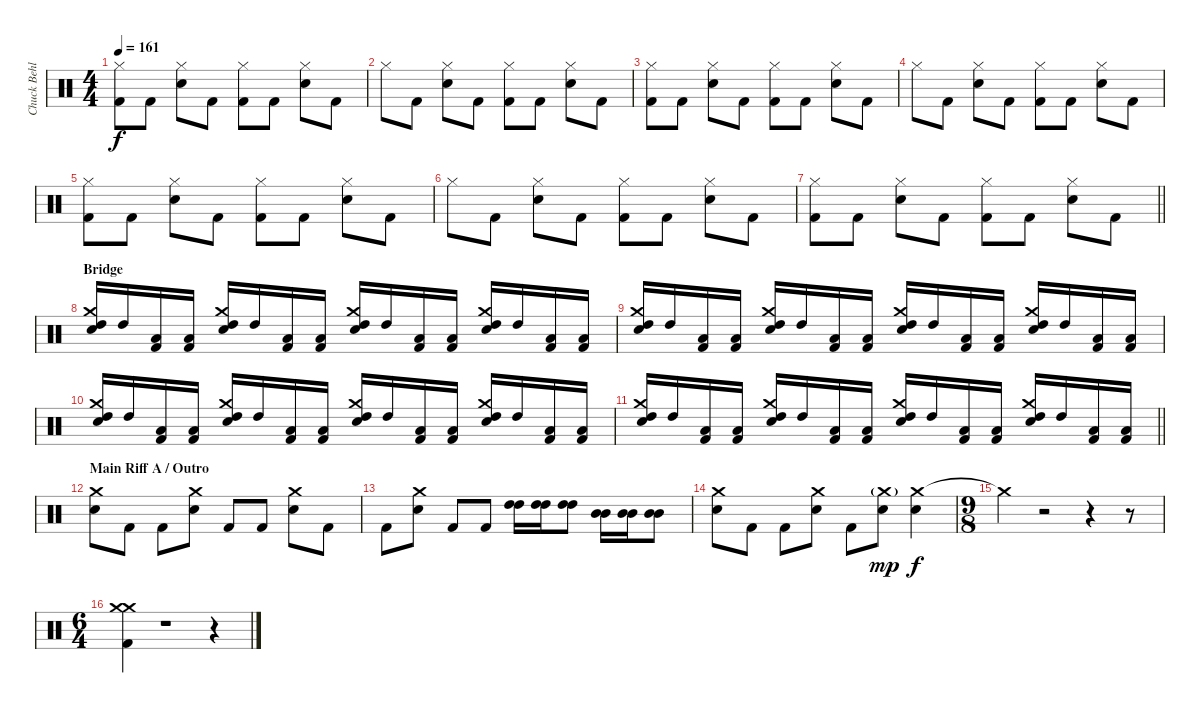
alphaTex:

\track ("Chuck Behler" "Chuck Behl") {instrument percussion}
\staff {score}
\articulation defaults
\ts (4 4)
\tempo 161
\clef neutral
\ks c
("Hi-Hat (closed)" "Kick (hit) 2").8{dy f} "Kick (hit) 2".8 ("Hi-Hat (closed)" "Snare (hit) 2").8 "Kick (hit) 2".8 ("Hi-Hat (closed)" "Kick (hit) 2").8 "Kick (hit) 2".8 ("Hi-Hat (closed)" "Snare (hit) 2").8 "Kick (hit) 2".8 |
"Hi-Hat (closed)".8 "Kick (hit) 2".8 ("Hi-Hat (closed)" "Snare (hit) 2").8 "Kick (hit) 2".8 ("Hi-Hat (closed)" "Kick (hit) 2").8 "Kick (hit) 2".8 ("Hi-Hat (closed)" "Snare (hit) 2").8 "Kick (hit) 2".8 |
("Hi-Hat (closed)" "Kick (hit) 2").8 "Kick (hit) 2".8 ("Hi-Hat (closed)" "Snare (hit) 2").8 "Kick (hit) 2".8 ("Hi-Hat (closed)" "Kick (hit) 2").8 "Kick (hit) 2".8 ("Hi-Hat (closed)" "Snare (hit) 2").8 "Kick (hit) 2".8 |
"Hi-Hat (closed)".8 "Kick (hit) 2".8 ("Hi-Hat (closed)" "Snare (hit) 2").8 "Kick (hit) 2".8 ("Hi-Hat (closed)" "Kick (hit) 2").8 "Kick (hit) 2".8 ("Hi-Hat (closed)" "Snare (hit) 2").8 "Kick (hit) 2".8 |
("Hi-Hat (closed)" "Kick (hit) 2").8 "Kick (hit) 2".8 ("Hi-Hat (closed)" "Snare (hit) 2").8 "Kick (hit) 2".8 ("Hi-Hat (closed)" "Kick (hit) 2").8 "Kick (hit) 2".8 ("Hi-Hat (closed)" "Snare (hit) 2").8 "Kick (hit) 2".8 |
"Hi-Hat (closed)".8 "Kick (hit) 2".8 ("Hi-Hat (closed)" "Snare (hit) 2").8 "Kick (hit) 2".8 ("Hi-Hat (closed)" "Kick (hit) 2").8 "Kick (hit) 2".8 ("Hi-Hat (closed)" "Snare (hit) 2").8 "Kick (hit) 2".8 |
\barLineRight lightlight
("Hi-Hat (closed)" "Kick (hit) 2").8 "Kick (hit) 2".8 ("Hi-Hat (closed)" "Snare (hit) 2").8 "Kick (hit) 2".8 ("Hi-Hat (closed)" "Kick (hit) 2").8 "Kick (hit) 2".8 ("Hi-Hat (closed)" "Snare (hit) 2").8 "Kick (hit) 2".8 |
\section ("" "Bridge")
("Crash medium (hit)" "High Tom (hit)" "Snare (hit) 2").16 "High Tom (hit)".16 ("Low Tom (hit)" "Kick (hit) 2").16 ("Low Tom (hit)" "Kick (hit) 2").16 ("Crash medium (hit)" "High Tom (hit)" "Snare (hit) 2").16 "High Tom (hit)".16 ("Low Tom (hit)" "Kick (hit) 2").16 ("Low Tom (hit)" "Kick (hit) 2").16 ("Crash medium (hit)" "High Tom (hit)" "Snare (hit) 2").16 "High Tom (hit)".16 ("Low Tom (hit)" "Kick (hit) 2").16 ("Low Tom (hit)" "Kick (hit) 2").16 ("Crash medium (hit)" "High Tom (hit)" "Snare (hit) 2").16 "High Tom (hit)".16 ("Low Tom (hit)" "Kick (hit) 2").16 ("Low Tom (hit)" "Kick (hit) 2").16 |
("Crash medium (hit)" "High Tom (hit)" "Snare (hit) 2").16 "High Tom (hit)".16 ("Low Tom (hit)" "Kick (hit) 2").16 ("Low Tom (hit)" "Kick (hit) 2").16 ("Crash medium (hit)" "High Tom (hit)" "Snare (hit) 2").16 "High Tom (hit)".16 ("Low Tom (hit)" "Kick (hit) 2").16 ("Low Tom (hit)" "Kick (hit) 2").16 ("Crash medium (hit)" "High Tom (hit)" "Snare (hit) 2").16 "High Tom (hit)".16 ("Low Tom (hit)" "Kick (hit) 2").16 ("Low Tom (hit)" "Kick (hit) 2").16 ("Crash medium (hit)" "High Tom (hit)" "Snare (hit) 2").16 "High Tom (hit)".16 ("Low Tom (hit)" "Kick (hit) 2").16 ("Low Tom (hit)" "Kick (hit) 2").16 |
("Crash medium (hit)" "High Tom (hit)" "Snare (hit) 2").16 "High Tom (hit)".16 ("Low Tom (hit)" "Kick (hit) 2").16 ("Low Tom (hit)" "Kick (hit) 2").16 ("Crash medium (hit)" "High Tom (hit)" "Snare (hit) 2").16 "High Tom (hit)".16 ("Low Tom (hit)" "Kick (hit) 2").16 ("Low Tom (hit)" "Kick (hit) 2").16 ("Crash medium (hit)" "High Tom (hit)" "Snare (hit) 2").16 "High Tom (hit)".16 ("Low Tom (hit)" "Kick (hit) 2").16 ("Low Tom (hit)" "Kick (hit) 2").16 ("Crash medium (hit)" "High Tom (hit)" "Snare (hit) 2").16 "High Tom (hit)".16 ("Low Tom (hit)" "Kick (hit) 2").16 ("Low Tom (hit)" "Kick (hit) 2").16 |
\barLineRight lightlight
("Crash medium (hit)" "High Tom (hit)" "Snare (hit) 2").16 "High Tom (hit)".16 ("Low Tom (hit)" "Kick (hit) 2").16 ("Low Tom (hit)" "Kick (hit) 2").16 ("Crash medium (hit)" "High Tom (hit)" "Snare (hit) 2").16 "High Tom (hit)".16 ("Low Tom (hit)" "Kick (hit) 2").16 ("Low Tom (hit)" "Kick (hit) 2").16 ("Crash medium (hit)" "High Tom (hit)" "Snare (hit) 2").16 "High Tom (hit)".16 ("Low Tom (hit)" "Kick (hit) 2").16 ("Low Tom (hit)" "Kick (hit) 2").16 ("Crash medium (hit)" "High Tom (hit)" "Snare (hit) 2").16 "High Tom (hit)".16 ("Low Tom (hit)" "Kick (hit) 2").16 ("Low Tom (hit)" "Kick (hit) 2").16 |
\section ("" "Main Riff A / Outro")
("Crash medium (hit)" "Snare (hit) 2").8 "Kick (hit) 2".8 "Kick (hit) 2".8 ("Crash medium (hit)" "Snare (hit) 2").8 "Kick (hit) 2".8 "Kick (hit) 2".8 ("Crash medium (hit)" "Snare (hit) 2").8 "Kick (hit) 2".8 |
"Kick (hit) 2".8 ("Crash medium (hit)" "Snare (hit) 2").8 "Kick (hit) 2".8 "Kick (hit) 2".8 ("High Tom (hit)" "High Tom (hit)").16 ("High Tom (hit)" "High Tom (hit)").16 ("High Tom (hit)" "High Tom (hit)").8 ("Mid Tom (hit)" "Mid Tom (hit)").16 ("Mid Tom (hit)" "Mid Tom (hit)").16 ("Mid Tom (hit)" "Mid Tom (hit)").8 |
("Crash medium (hit)" "Snare (hit) 2").8 "Kick (hit) 2".8 "Kick (hit) 2".8 ("Crash medium (hit)" "Snare (hit) 2").8 "Kick (hit) 2".8 ("Crash medium (hit)"{g} "Snare (hit) 2").8{dy mp} ("Crash medium (hit)" "Snare (hit) 2").4{dy f} |
\ts (9 8)
"Crash medium (hit)"{t}.4 r.2 r.4 r.8 |
\ts (6 4)
("Crash medium (hit)" "Crash medium (hit)" "Kick (hit) 2").4 r.1 r.4
